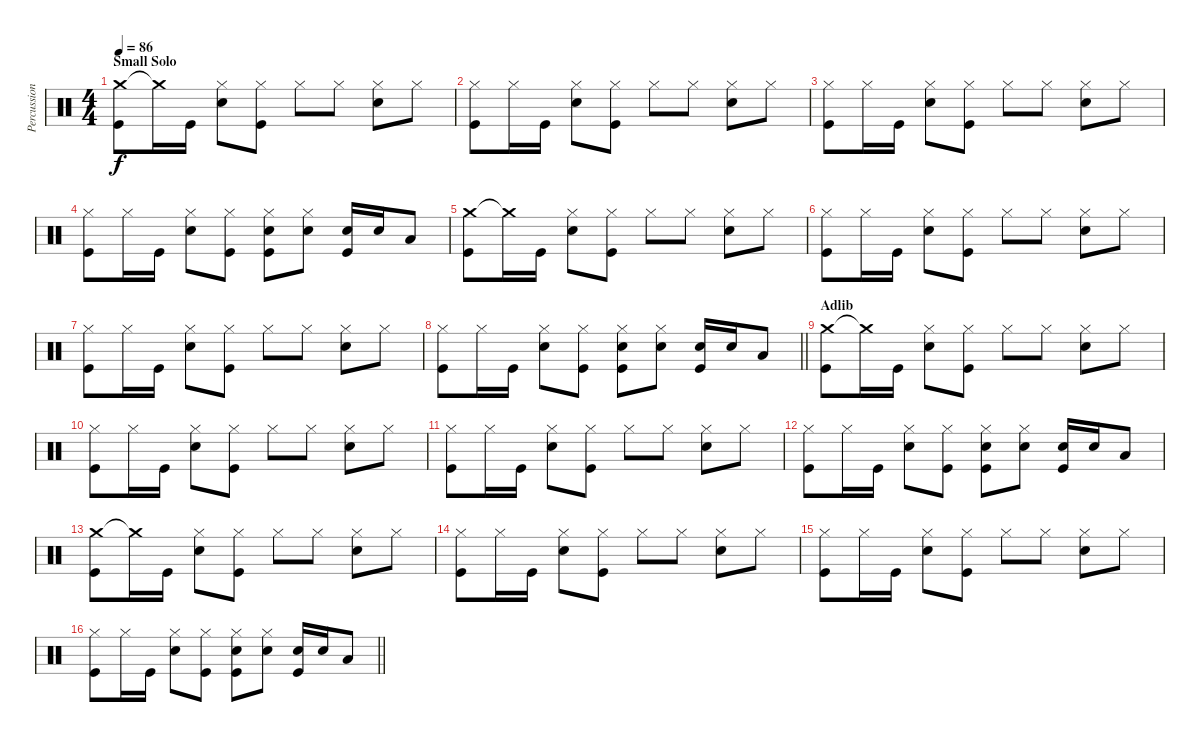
\track ("Percussion" "Percussion") {instrument percussion}
\staff {score}
\articulation defaults
\ts (4 4)
\section ("" "Small Solo")
\tempo 86
\clef neutral
\ks c
("Crash medium (hit)" "Kick (hit)").8{dy f} "Crash medium (hit)"{t}.16 "Kick (hit)".16 ("Hi-Hat (closed)" "Snare (hit) 2").8 ("Hi-Hat (closed)" "Kick (hit)").8 "Hi-Hat (closed)".8 "Hi-Hat (closed)".8 ("Hi-Hat (closed)" "Snare (hit) 2").8 "Hi-Hat (closed)".8 |
("Hi-Hat (closed)" "Kick (hit)").8 "Hi-Hat (closed)".16 "Kick (hit)".16 ("Hi-Hat (closed)" "Snare (hit) 2").8 ("Hi-Hat (closed)" "Kick (hit)").8 "Hi-Hat (closed)".8 "Hi-Hat (closed)".8 ("Hi-Hat (closed)" "Snare (hit) 2").8 "Hi-Hat (closed)".8 |
("Hi-Hat (closed)" "Kick (hit)").8 "Hi-Hat (closed)".16 "Kick (hit)".16 ("Hi-Hat (closed)" "Snare (hit) 2").8 ("Hi-Hat (closed)" "Kick (hit)").8 "Hi-Hat (closed)".8 "Hi-Hat (closed)".8 ("Hi-Hat (closed)" "Snare (hit) 2").8 "Hi-Hat (closed)".8 |
("Hi-Hat (closed)" "Kick (hit)").8 "Hi-Hat (closed)".16 "Kick (hit)".16 ("Hi-Hat (closed)" "Snare (hit) 2").8 ("Hi-Hat (closed)" "Kick (hit)").8 ("Hi-Hat (closed)" "Snare (hit) 2" "Kick (hit)").8 ("Hi-Hat (closed)" "Snare (hit) 2").8 ("Snare (hit) 2" "Kick (hit)").16 "Snare (hit) 2".16 "Low Tom (hit)".8 |
("Crash medium (hit)" "Kick (hit)").8 "Crash medium (hit)"{t}.16 "Kick (hit)".16 ("Hi-Hat (closed)" "Snare (hit) 2").8 ("Hi-Hat (closed)" "Kick (hit)").8 "Hi-Hat (closed)".8 "Hi-Hat (closed)".8 ("Hi-Hat (closed)" "Snare (hit) 2").8 "Hi-Hat (closed)".8 |
("Hi-Hat (closed)" "Kick (hit)").8 "Hi-Hat (closed)".16 "Kick (hit)".16 ("Hi-Hat (closed)" "Snare (hit) 2").8 ("Hi-Hat (closed)" "Kick (hit)").8 "Hi-Hat (closed)".8 "Hi-Hat (closed)".8 ("Hi-Hat (closed)" "Snare (hit) 2").8 "Hi-Hat (closed)".8 |
("Hi-Hat (closed)" "Kick (hit)").8 "Hi-Hat (closed)".16 "Kick (hit)".16 ("Hi-Hat (closed)" "Snare (hit) 2").8 ("Hi-Hat (closed)" "Kick (hit)").8 "Hi-Hat (closed)".8 "Hi-Hat (closed)".8 ("Hi-Hat (closed)" "Snare (hit) 2").8 "Hi-Hat (closed)".8 |
\barLineRight lightlight
("Hi-Hat (closed)" "Kick (hit)").8 "Hi-Hat (closed)".16 "Kick (hit)".16 ("Hi-Hat (closed)" "Snare (hit) 2").8 ("Hi-Hat (closed)" "Kick (hit)").8 ("Hi-Hat (closed)" "Snare (hit) 2" "Kick (hit)").8 ("Hi-Hat (closed)" "Snare (hit) 2").8 ("Snare (hit) 2" "Kick (hit)").16 "Snare (hit) 2".16 "Low Tom (hit)".8 |
\section ("" "Adlib")
("Crash medium (hit)" "Kick (hit)").8 "Crash medium (hit)"{t}.16 "Kick (hit)".16 ("Hi-Hat (closed)" "Snare (hit) 2").8 ("Hi-Hat (closed)" "Kick (hit)").8 "Hi-Hat (closed)".8 "Hi-Hat (closed)".8 ("Hi-Hat (closed)" "Snare (hit) 2").8 "Hi-Hat (closed)".8 |
("Hi-Hat (closed)" "Kick (hit)").8 "Hi-Hat (closed)".16 "Kick (hit)".16 ("Hi-Hat (closed)" "Snare (hit) 2").8 ("Hi-Hat (closed)" "Kick (hit)").8 "Hi-Hat (closed)".8 "Hi-Hat (closed)".8 ("Hi-Hat (closed)" "Snare (hit) 2").8 "Hi-Hat (closed)".8 |
("Hi-Hat (closed)" "Kick (hit)").8 "Hi-Hat (closed)".16 "Kick (hit)".16 ("Hi-Hat (closed)" "Snare (hit) 2").8 ("Hi-Hat (closed)" "Kick (hit)").8 "Hi-Hat (closed)".8 "Hi-Hat (closed)".8 ("Hi-Hat (closed)" "Snare (hit) 2").8 "Hi-Hat (closed)".8 |
("Hi-Hat (closed)" "Kick (hit)").8 "Hi-Hat (closed)".16 "Kick (hit)".16 ("Hi-Hat (closed)" "Snare (hit) 2").8 ("Hi-Hat (closed)" "Kick (hit)").8 ("Hi-Hat (closed)" "Snare (hit) 2" "Kick (hit)").8 ("Hi-Hat (closed)" "Snare (hit) 2").8 ("Snare (hit) 2" "Kick (hit)").16 "Snare (hit) 2".16 "Low Tom (hit)".8 |
("Crash medium (hit)" "Kick (hit)").8 "Crash medium (hit)"{t}.16 "Kick (hit)".16 ("Hi-Hat (closed)" "Snare (hit) 2").8 ("Hi-Hat (closed)" "Kick (hit)").8 "Hi-Hat (closed)".8 "Hi-Hat (closed)".8 ("Hi-Hat (closed)" "Snare (hit) 2").8 "Hi-Hat (closed)".8 |
("Hi-Hat (closed)" "Kick (hit)").8 "Hi-Hat (closed)".16 "Kick (hit)".16 ("Hi-Hat (closed)" "Snare (hit) 2").8 ("Hi-Hat (closed)" "Kick (hit)").8 "Hi-Hat (closed)".8 "Hi-Hat (closed)".8 ("Hi-Hat (closed)" "Snare (hit) 2").8 "Hi-Hat (closed)".8 |
("Hi-Hat (closed)" "Kick (hit)").8 "Hi-Hat (closed)".16 "Kick (hit)".16 ("Hi-Hat (closed)" "Snare (hit) 2").8 ("Hi-Hat (closed)" "Kick (hit)").8 "Hi-Hat (closed)".8 "Hi-Hat (closed)".8 ("Hi-Hat (closed)" "Snare (hit) 2").8 "Hi-Hat (closed)".8 |
\barLineRight lightlight
("Hi-Hat (closed)" "Kick (hit)").8 "Hi-Hat (closed)".16 "Kick (hit)".16 ("Hi-Hat (closed)" "Snare (hit) 2").8 ("Hi-Hat (closed)" "Kick (hit)").8 ("Hi-Hat (closed)" "Snare (hit) 2" "Kick (hit)").8 ("Hi-Hat (closed)" "Snare (hit) 2").8 ("Snare (hit) 2" "Kick (hit)").16 "Snare (hit) 2".16 "Low Tom (hit)".8
